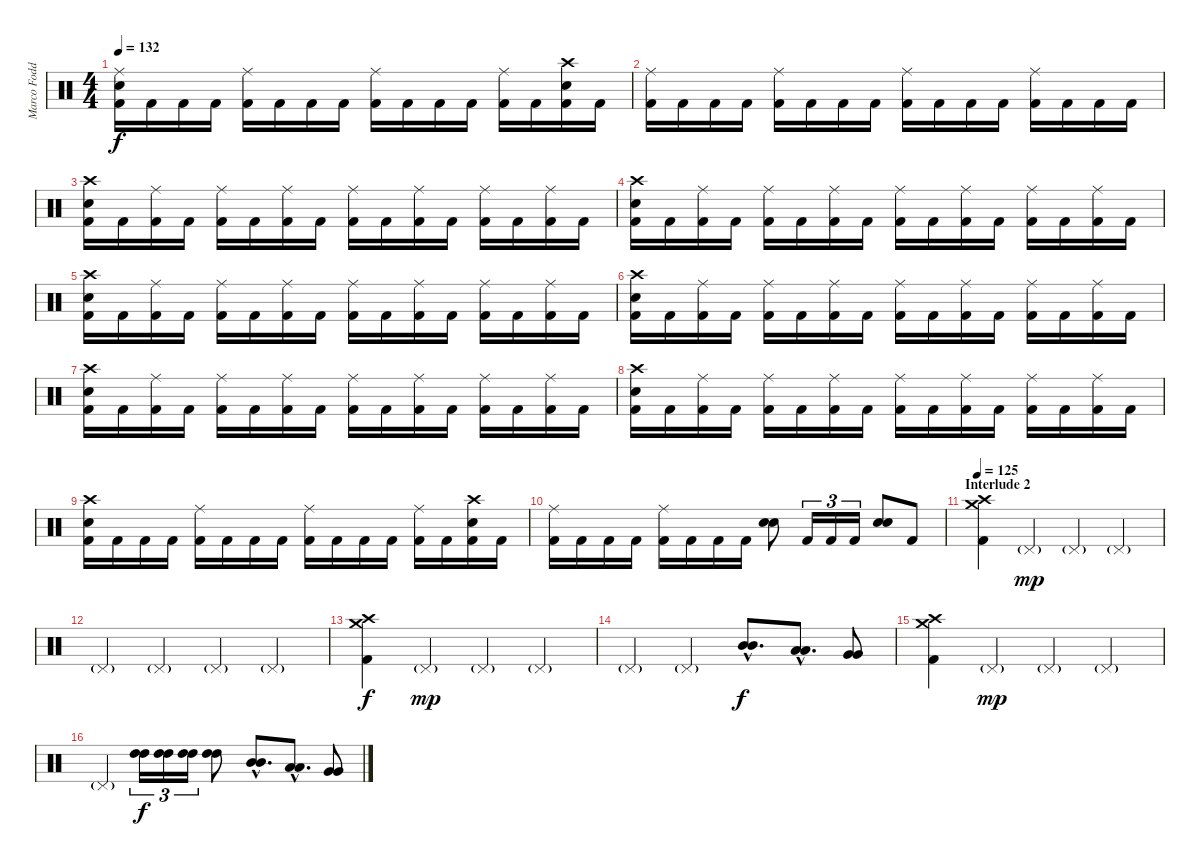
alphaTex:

\track ("Marco Foddis " "Marco Fodd") {instrument percussion}
\staff {score}
\articulation defaults
\ts (4 4)
\tempo 132
\clef neutral
\ks c
("Ride (middle)" "Electric Snare (hit)" "Kick (hit) 2").16{dy f} "Kick (hit) 2".16 "Kick (hit) 2".16 "Kick (hit) 2".16 ("Ride (middle)" "Kick (hit) 2").16 "Kick (hit) 2".16 "Kick (hit) 2".16 "Kick (hit) 2".16 ("Ride (middle)" "Kick (hit) 2").16 "Kick (hit) 2".16 "Kick (hit) 2".16 "Kick (hit) 2".16 ("Ride (middle)" "Kick (hit) 2").16 "Kick (hit) 2".16 ("Crash high (hit)" "Electric Snare (hit)" "Kick (hit) 2").16 "Kick (hit) 2".16 |
("Ride (middle)" "Kick (hit) 2").16 "Kick (hit) 2".16 "Kick (hit) 2".16 "Kick (hit) 2".16 ("Ride (middle)" "Kick (hit) 2").16 "Kick (hit) 2".16 "Kick (hit) 2".16 "Kick (hit) 2".16 ("Ride (middle)" "Kick (hit) 2").16 "Kick (hit) 2".16 "Kick (hit) 2".16 "Kick (hit) 2".16 ("Ride (middle)" "Kick (hit) 2").16 "Kick (hit) 2".16 "Kick (hit) 2".16 "Kick (hit) 2".16 |
("Crash high (hit)" "Electric Snare (hit)" "Kick (hit) 2").16 "Kick (hit) 2".16 ("Ride (middle)" "Kick (hit) 2").16 "Kick (hit) 2".16 ("Ride (middle)" "Kick (hit) 2").16 "Kick (hit) 2".16 ("Ride (middle)" "Kick (hit) 2").16 "Kick (hit) 2".16 ("Ride (middle)" "Kick (hit) 2").16 "Kick (hit) 2".16 ("Ride (middle)" "Kick (hit) 2").16 "Kick (hit) 2".16 ("Ride (middle)" "Kick (hit) 2").16 "Kick (hit) 2".16 ("Ride (middle)" "Kick (hit) 2").16 "Kick (hit) 2".16 |
("Crash high (hit)" "Electric Snare (hit)" "Kick (hit) 2").16 "Kick (hit) 2".16 ("Ride (middle)" "Kick (hit) 2").16 "Kick (hit) 2".16 ("Ride (middle)" "Kick (hit) 2").16 "Kick (hit) 2".16 ("Ride (middle)" "Kick (hit) 2").16 "Kick (hit) 2".16 ("Ride (middle)" "Kick (hit) 2").16 "Kick (hit) 2".16 ("Ride (middle)" "Kick (hit) 2").16 "Kick (hit) 2".16 ("Ride (middle)" "Kick (hit) 2").16 "Kick (hit) 2".16 ("Ride (middle)" "Kick (hit) 2").16 "Kick (hit) 2".16 |
("Crash high (hit)" "Electric Snare (hit)" "Kick (hit) 2").16 "Kick (hit) 2".16 ("Ride (middle)" "Kick (hit) 2").16 "Kick (hit) 2".16 ("Ride (middle)" "Kick (hit) 2").16 "Kick (hit) 2".16 ("Ride (middle)" "Kick (hit) 2").16 "Kick (hit) 2".16 ("Ride (middle)" "Kick (hit) 2").16 "Kick (hit) 2".16 ("Ride (middle)" "Kick (hit) 2").16 "Kick (hit) 2".16 ("Ride (middle)" "Kick (hit) 2").16 "Kick (hit) 2".16 ("Ride (middle)" "Kick (hit) 2").16 "Kick (hit) 2".16 |
("Crash high (hit)" "Electric Snare (hit)" "Kick (hit) 2").16 "Kick (hit) 2".16 ("Ride (middle)" "Kick (hit) 2").16 "Kick (hit) 2".16 ("Ride (middle)" "Kick (hit) 2").16 "Kick (hit) 2".16 ("Ride (middle)" "Kick (hit) 2").16 "Kick (hit) 2".16 ("Ride (middle)" "Kick (hit) 2").16 "Kick (hit) 2".16 ("Ride (middle)" "Kick (hit) 2").16 "Kick (hit) 2".16 ("Ride (middle)" "Kick (hit) 2").16 "Kick (hit) 2".16 ("Ride (middle)" "Kick (hit) 2").16 "Kick (hit) 2".16 |
("Crash high (hit)" "Electric Snare (hit)" "Kick (hit) 2").16 "Kick (hit) 2".16 ("Ride (middle)" "Kick (hit) 2").16 "Kick (hit) 2".16 ("Ride (middle)" "Kick (hit) 2").16 "Kick (hit) 2".16 ("Ride (middle)" "Kick (hit) 2").16 "Kick (hit) 2".16 ("Ride (middle)" "Kick (hit) 2").16 "Kick (hit) 2".16 ("Ride (middle)" "Kick (hit) 2").16 "Kick (hit) 2".16 ("Ride (middle)" "Kick (hit) 2").16 "Kick (hit) 2".16 ("Ride (middle)" "Kick (hit) 2").16 "Kick (hit) 2".16 |
("Crash high (hit)" "Electric Snare (hit)" "Kick (hit) 2").16 "Kick (hit) 2".16 ("Ride (middle)" "Kick (hit) 2").16 "Kick (hit) 2".16 ("Ride (middle)" "Kick (hit) 2").16 "Kick (hit) 2".16 ("Ride (middle)" "Kick (hit) 2").16 "Kick (hit) 2".16 ("Ride (middle)" "Kick (hit) 2").16 "Kick (hit) 2".16 ("Ride (middle)" "Kick (hit) 2").16 "Kick (hit) 2".16 ("Ride (middle)" "Kick (hit) 2").16 "Kick (hit) 2".16 ("Ride (middle)" "Kick (hit) 2").16 "Kick (hit) 2".16 |
("Crash high (hit)" "Electric Snare (hit)" "Kick (hit) 2").16 "Kick (hit) 2".16 "Kick (hit) 2".16 "Kick (hit) 2".16 ("Ride (middle)" "Kick (hit) 2").16 "Kick (hit) 2".16 "Kick (hit) 2".16 "Kick (hit) 2".16 ("Ride (middle)" "Kick (hit) 2").16 "Kick (hit) 2".16 "Kick (hit) 2".16 "Kick (hit) 2".16 ("Ride (middle)" "Kick (hit) 2").16 "Kick (hit) 2".16 ("Crash high (hit)" "Electric Snare (hit)" "Kick (hit) 2").16 "Kick (hit) 2".16 |
("Ride (middle)" "Kick (hit) 2").16 "Kick (hit) 2".16 "Kick (hit) 2".16 "Kick (hit) 2".16 ("Ride (middle)" "Kick (hit) 2").16 "Kick (hit) 2".16 "Kick (hit) 2".16 "Kick (hit) 2".16 ("Electric Snare (hit)" "Electric Snare (hit)").8 "Kick (hit) 2".16{tu (3 2)} "Kick (hit) 2".16{tu (3 2)} "Kick (hit) 2".16{tu (3 2)} ("Electric Snare (hit)" "Electric Snare (hit)").8 "Kick (hit) 2".8 |
\section ("" "Interlude 2")
\tempo 125
("Crash high (hit)" "Crash medium (hit)" "Kick (hit) 2").4 "Pedal Hi-Hat (hit)"{g}.4{dy mp} "Pedal Hi-Hat (hit)"{g}.4 "Pedal Hi-Hat (hit)"{g}.4 |
"Pedal Hi-Hat (hit)"{g}.4 "Pedal Hi-Hat (hit)"{g}.4 "Pedal Hi-Hat (hit)"{g}.4 "Pedal Hi-Hat (hit)"{g}.4 |
("Crash high (hit)" "Crash medium (hit)" "Kick (hit) 2").4{dy f} "Pedal Hi-Hat (hit)"{g}.4{dy mp} "Pedal Hi-Hat (hit)"{g}.4 "Pedal Hi-Hat (hit)"{g}.4 |
"Pedal Hi-Hat (hit)"{g}.4 "Pedal Hi-Hat (hit)"{g}.4 ("Mid Tom (hit)"{hac} "Mid Tom (hit)"{hac}).8{d dy f} ("Low Tom (hit)"{hac} "Low Tom (hit)"{hac}).8{d} ("Very Low Tom (hit)" "Very Low Tom (hit)").8 |
("Crash high (hit)" "Crash medium (hit)" "Kick (hit) 2").4 "Pedal Hi-Hat (hit)"{g}.4{dy mp} "Pedal Hi-Hat (hit)"{g}.4 "Pedal Hi-Hat (hit)"{g}.4 |
"Pedal Hi-Hat (hit)"{g}.4 ("High Tom (hit)" "High Tom (hit)").16{tu (3 2) dy f} ("High Tom (hit)" "High Tom (hit)").16{tu (3 2)} ("High Tom (hit)" "High Tom (hit)").16{tu (3 2)} ("High Tom (hit)" "High Tom (hit)").8 ("Mid Tom (hit)"{hac} "Mid Tom (hit)"{hac}).8{d} ("Low Tom (hit)"{hac} "Low Tom (hit)"{hac}).8{d} ("Very Low Tom (hit)" "Very Low Tom (hit)").8
